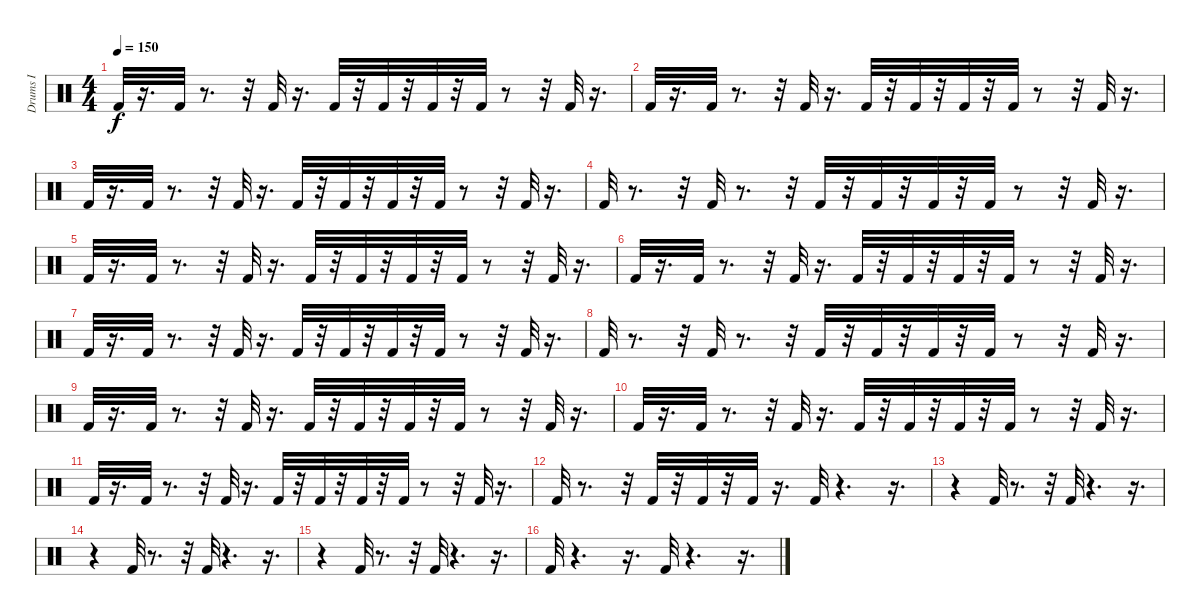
\track ("Drums I" "Drums I") {instrument percussion}
\staff {score}
\articulation defaults
\ts (4 4)
\tempo 150
\clef neutral
\ks c "Kick (hit) 2".32{dy f}
r.16{d} "Kick (hit) 2".32 r.8{d} r.32 "Kick (hit) 2".32 r.16{d} "Kick (hit) 2".32 r.32 "Kick (hit) 2".32 r.32 "Kick (hit) 2".32 r.32 "Kick (hit) 2".32 r.8 r.32 "Kick (hit) 2".32 r.16{d} |
"Kick (hit) 2".32 r.16{d} "Kick (hit) 2".32 r.8{d} r.32 "Kick (hit) 2".32 r.16{d} "Kick (hit) 2".32 r.32 "Kick (hit) 2".32 r.32 "Kick (hit) 2".32 r.32 "Kick (hit) 2".32 r.8 r.32 "Kick (hit) 2".32 r.16{d} |
"Kick (hit) 2".32 r.16{d} "Kick (hit) 2".32 r.8{d} r.32 "Kick (hit) 2".32 r.16{d} "Kick (hit) 2".32 r.32 "Kick (hit) 2".32 r.32 "Kick (hit) 2".32 r.32 "Kick (hit) 2".32 r.8 r.32 "Kick (hit) 2".32 r.16{d} |
"Kick (hit) 2".32 r.8{d} r.32 "Kick (hit) 2".32 r.8{d} r.32 "Kick (hit) 2".32 r.32 "Kick (hit) 2".32 r.32 "Kick (hit) 2".32 r.32 "Kick (hit) 2".32 r.8 r.32 "Kick (hit) 2".32 r.16{d} |
"Kick (hit) 2".32 r.16{d} "Kick (hit) 2".32 r.8{d} r.32 "Kick (hit) 2".32 r.16{d} "Kick (hit) 2".32 r.32 "Kick (hit) 2".32 r.32 "Kick (hit) 2".32 r.32 "Kick (hit) 2".32 r.8 r.32 "Kick (hit) 2".32 r.16{d} |
"Kick (hit) 2".32 r.16{d} "Kick (hit) 2".32 r.8{d} r.32 "Kick (hit) 2".32 r.16{d} "Kick (hit) 2".32 r.32 "Kick (hit) 2".32 r.32 "Kick (hit) 2".32 r.32 "Kick (hit) 2".32 r.8 r.32 "Kick (hit) 2".32 r.16{d} |
"Kick (hit) 2".32 r.16{d} "Kick (hit) 2".32 r.8{d} r.32 "Kick (hit) 2".32 r.16{d} "Kick (hit) 2".32 r.32 "Kick (hit) 2".32 r.32 "Kick (hit) 2".32 r.32 "Kick (hit) 2".32 r.8 r.32 "Kick (hit) 2".32 r.16{d} |
"Kick (hit) 2".32 r.8{d} r.32 "Kick (hit) 2".32 r.8{d} r.32 "Kick (hit) 2".32 r.32 "Kick (hit) 2".32 r.32 "Kick (hit) 2".32 r.32 "Kick (hit) 2".32 r.8 r.32 "Kick (hit) 2".32 r.16{d} |
"Kick (hit) 2".32 r.16{d} "Kick (hit) 2".32 r.8{d} r.32 "Kick (hit) 2".32 r.16{d} "Kick (hit) 2".32 r.32 "Kick (hit) 2".32 r.32 "Kick (hit) 2".32 r.32 "Kick (hit) 2".32 r.8 r.32 "Kick (hit) 2".32 r.16{d} |
"Kick (hit) 2".32 r.16{d} "Kick (hit) 2".32 r.8{d} r.32 "Kick (hit) 2".32 r.16{d} "Kick (hit) 2".32 r.32 "Kick (hit) 2".32 r.32 "Kick (hit) 2".32 r.32 "Kick (hit) 2".32 r.8 r.32 "Kick (hit) 2".32 r.16{d} |
"Kick (hit) 2".32 r.16{d} "Kick (hit) 2".32 r.8{d} r.32 "Kick (hit) 2".32 r.16{d} "Kick (hit) 2".32 r.32 "Kick (hit) 2".32 r.32 "Kick (hit) 2".32 r.32 "Kick (hit) 2".32 r.8 r.32 "Kick (hit) 2".32 r.16{d} |
"Kick (hit) 2".32 r.8{d} r.32 "Kick (hit) 2".32 r.32 "Kick (hit) 2".32 r.32 "Kick (hit) 2".32 r.16{d} "Kick (hit) 2".32 r.4{d} r.16{d} |
r.4 "Kick (hit) 2".32 r.8{d} r.32 "Kick (hit) 2".32 r.4{d} r.16{d} |
r.4 "Kick (hit) 2".32 r.8{d} r.32 "Kick (hit) 2".32 r.4{d} r.16{d} |
r.4 "Kick (hit) 2".32 r.8{d} r.32 "Kick (hit) 2".32 r.4{d} r.16{d} |
"Kick (hit) 2".32 r.4{d} r.16{d} "Kick (hit) 2".32 r.4{d} r.16{d}
